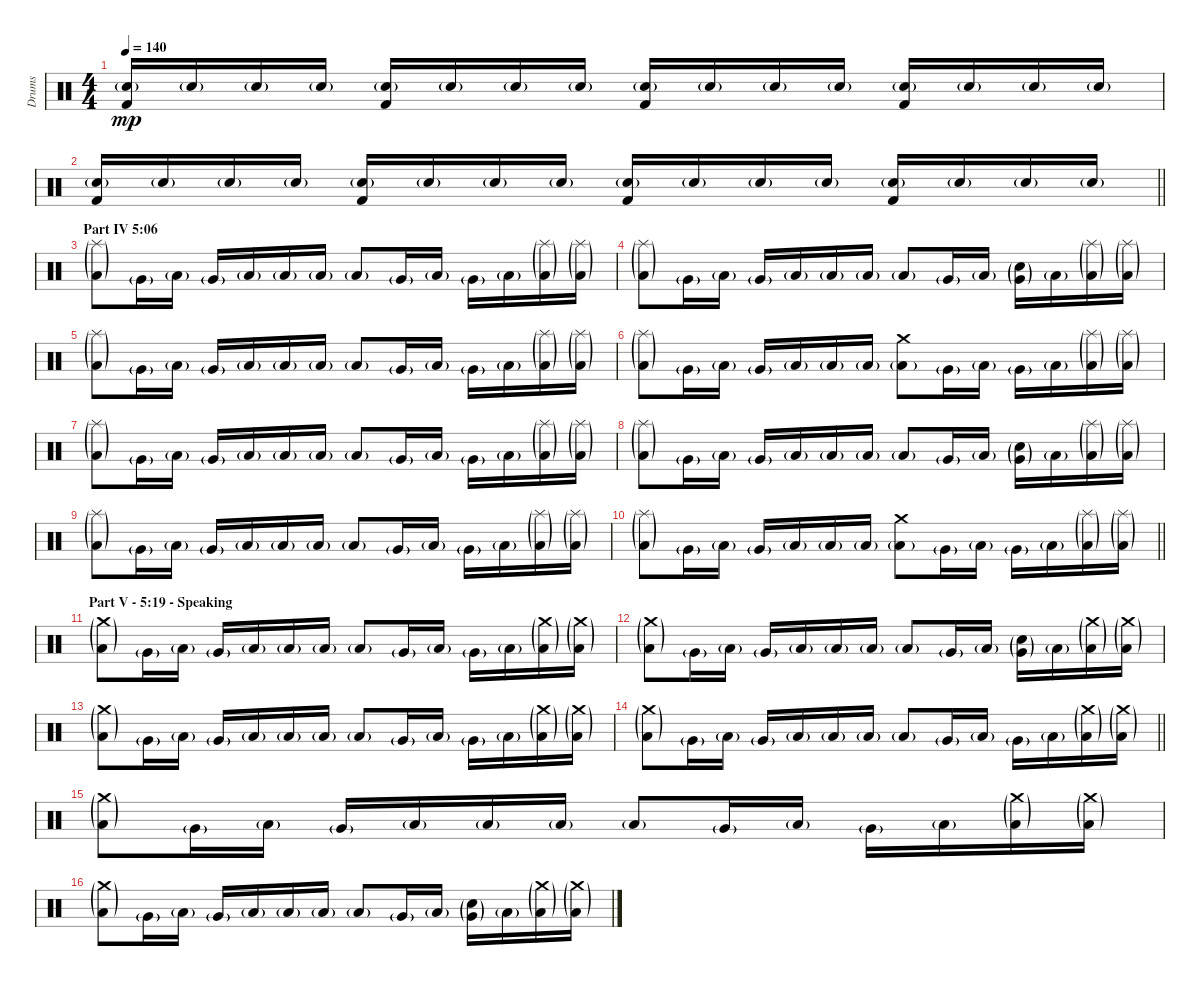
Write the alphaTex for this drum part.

\track ("Drums" "Drums") {instrument percussion}
\staff {score}
\articulation defaults
\ts (4 4)
\tempo 140
\clef neutral
\ks c
("Kick (hit) 2" "Snare (hit) 2"{g}).16{dy mp} "Snare (hit) 2"{g}.16 "Snare (hit) 2"{g}.16 "Snare (hit) 2"{g}.16 ("Kick (hit) 2" "Snare (hit) 2"{g}).16 "Snare (hit) 2"{g}.16 "Snare (hit) 2"{g}.16 "Snare (hit) 2"{g}.16 ("Kick (hit) 2" "Snare (hit) 2"{g}).16 "Snare (hit) 2"{g}.16 "Snare (hit) 2"{g}.16 "Snare (hit) 2"{g}.16 ("Kick (hit) 2" "Snare (hit) 2"{g}).16 "Snare (hit) 2"{g}.16 "Snare (hit) 2"{g}.16 "Snare (hit) 2"{g}.16 |
\barLineRight lightlight
("Kick (hit) 2" "Snare (hit) 2"{g}).16 "Snare (hit) 2"{g}.16 "Snare (hit) 2"{g}.16 "Snare (hit) 2"{g}.16 ("Kick (hit) 2" "Snare (hit) 2"{g}).16 "Snare (hit) 2"{g}.16 "Snare (hit) 2"{g}.16 "Snare (hit) 2"{g}.16 ("Kick (hit) 2" "Snare (hit) 2"{g}).16 "Snare (hit) 2"{g}.16 "Snare (hit) 2"{g}.16 "Snare (hit) 2"{g}.16 ("Kick (hit) 2" "Snare (hit) 2"{g}).16 "Snare (hit) 2"{g}.16 "Snare (hit) 2"{g}.16 "Snare (hit) 2"{g}.16 |
\section ("" "Part IV 5:06")
("Low Tom (hit)"{g} "Splash (hit)"{g}).8 "Very Low Tom (hit)"{g}.16 "Low Tom (hit)"{g}.16 "Very Low Tom (hit)"{g}.16 "Low Floor Tom (hit)"{g}.16 "Low Floor Tom (hit)"{g}.16 "Low Floor Tom (hit)"{g}.16 "Low Tom (hit)"{g}.8 "Very Low Tom (hit)"{g}.16 "Low Tom (hit)"{g}.16 "Very Low Tom (hit)"{g}.16 "Low Floor Tom (hit)"{g}.16 ("Low Floor Tom (hit)"{g} "Splash (hit)"{g}).16 ("Low Floor Tom (hit)"{g} "Splash (hit)"{g}).16 |
("Low Tom (hit)"{g} "Splash (hit)"{g}).8 "Very Low Tom (hit)"{g}.16 "Low Tom (hit)"{g}.16 "Very Low Tom (hit)"{g}.16 "Low Floor Tom (hit)"{g}.16 "Low Floor Tom (hit)"{g}.16 "Low Floor Tom (hit)"{g}.16 "Low Tom (hit)"{g}.8 "Very Low Tom (hit)"{g}.16 "Low Tom (hit)"{g}.16 ("Snare (hit) 2"{g} "Very Low Tom (hit)"{g}).16 "Low Floor Tom (hit)"{g}.16 ("Low Floor Tom (hit)"{g} "Splash (hit)"{g}).16 ("Low Floor Tom (hit)"{g} "Splash (hit)"{g}).16 |
("Low Tom (hit)"{g} "Splash (hit)"{g}).8 "Very Low Tom (hit)"{g}.16 "Low Tom (hit)"{g}.16 "Very Low Tom (hit)"{g}.16 "Low Floor Tom (hit)"{g}.16 "Low Floor Tom (hit)"{g}.16 "Low Floor Tom (hit)"{g}.16 "Low Tom (hit)"{g}.8 "Very Low Tom (hit)"{g}.16 "Low Tom (hit)"{g}.16 "Very Low Tom (hit)"{g}.16 "Low Floor Tom (hit)"{g}.16 ("Low Floor Tom (hit)"{g} "Splash (hit)"{g}).16 ("Low Floor Tom (hit)"{g} "Splash (hit)"{g}).16 |
("Low Tom (hit)"{g} "Splash (hit)"{g}).8 "Very Low Tom (hit)"{g}.16 "Low Tom (hit)"{g}.16 "Very Low Tom (hit)"{g}.16 "Low Floor Tom (hit)"{g}.16 "Low Floor Tom (hit)"{g}.16 "Low Floor Tom (hit)"{g}.16 ("Low Tom (hit)"{g} "Crash medium (hit)").8 "Very Low Tom (hit)"{g}.16 "Low Tom (hit)"{g}.16 "Very Low Tom (hit)"{g}.16 "Low Floor Tom (hit)"{g}.16 ("Low Floor Tom (hit)"{g} "Splash (hit)"{g}).16 ("Low Floor Tom (hit)"{g} "Splash (hit)"{g}).16 |
("Low Tom (hit)"{g} "Splash (hit)"{g}).8 "Very Low Tom (hit)"{g}.16 "Low Tom (hit)"{g}.16 "Very Low Tom (hit)"{g}.16 "Low Floor Tom (hit)"{g}.16 "Low Floor Tom (hit)"{g}.16 "Low Floor Tom (hit)"{g}.16 "Low Tom (hit)"{g}.8 "Very Low Tom (hit)"{g}.16 "Low Tom (hit)"{g}.16 "Very Low Tom (hit)"{g}.16 "Low Floor Tom (hit)"{g}.16 ("Low Floor Tom (hit)"{g} "Splash (hit)"{g}).16 ("Low Floor Tom (hit)"{g} "Splash (hit)"{g}).16 |
("Low Tom (hit)"{g} "Splash (hit)"{g}).8 "Very Low Tom (hit)"{g}.16 "Low Tom (hit)"{g}.16 "Very Low Tom (hit)"{g}.16 "Low Floor Tom (hit)"{g}.16 "Low Floor Tom (hit)"{g}.16 "Low Floor Tom (hit)"{g}.16 "Low Tom (hit)"{g}.8 "Very Low Tom (hit)"{g}.16 "Low Tom (hit)"{g}.16 ("Snare (hit) 2"{g} "Very Low Tom (hit)"{g}).16 "Low Floor Tom (hit)"{g}.16 ("Low Floor Tom (hit)"{g} "Splash (hit)"{g}).16 ("Low Floor Tom (hit)"{g} "Splash (hit)"{g}).16 |
("Low Tom (hit)"{g} "Splash (hit)"{g}).8 "Very Low Tom (hit)"{g}.16 "Low Tom (hit)"{g}.16 "Very Low Tom (hit)"{g}.16 "Low Floor Tom (hit)"{g}.16 "Low Floor Tom (hit)"{g}.16 "Low Floor Tom (hit)"{g}.16 "Low Tom (hit)"{g}.8 "Very Low Tom (hit)"{g}.16 "Low Tom (hit)"{g}.16 "Very Low Tom (hit)"{g}.16 "Low Floor Tom (hit)"{g}.16 ("Low Floor Tom (hit)"{g} "Splash (hit)"{g}).16 ("Low Floor Tom (hit)"{g} "Splash (hit)"{g}).16 |
\barLineRight lightlight
("Low Tom (hit)"{g} "Splash (hit)"{g}).8 "Very Low Tom (hit)"{g}.16 "Low Tom (hit)"{g}.16 "Very Low Tom (hit)"{g}.16 "Low Floor Tom (hit)"{g}.16 "Low Floor Tom (hit)"{g}.16 "Low Floor Tom (hit)"{g}.16 ("Low Tom (hit)"{g} "Crash medium (hit)").8 "Very Low Tom (hit)"{g}.16 "Low Tom (hit)"{g}.16 "Very Low Tom (hit)"{g}.16 "Low Floor Tom (hit)"{g}.16 ("Low Floor Tom (hit)"{g} "Splash (hit)"{g}).16 ("Low Floor Tom (hit)"{g} "Splash (hit)"{g}).16 |
\section ("" "Part V - 5:19 - Speaking")
("Low Tom (hit)"{g} "Crash medium (hit)"{g}).8 "Very Low Tom (hit)"{g}.16 "Low Tom (hit)"{g}.16 "Very Low Tom (hit)"{g}.16 "Low Floor Tom (hit)"{g}.16 "Low Floor Tom (hit)"{g}.16 "Low Floor Tom (hit)"{g}.16 "Low Tom (hit)"{g}.8 "Very Low Tom (hit)"{g}.16 "Low Tom (hit)"{g}.16 "Very Low Tom (hit)"{g}.16 "Low Floor Tom (hit)"{g}.16 ("Low Floor Tom (hit)"{g} "Crash medium (hit)"{g}).16 ("Low Floor Tom (hit)"{g} "Crash medium (hit)"{g}).16 |
("Low Tom (hit)"{g} "Crash medium (hit)"{g}).8 "Very Low Tom (hit)"{g}.16 "Low Tom (hit)"{g}.16 "Very Low Tom (hit)"{g}.16 "Low Floor Tom (hit)"{g}.16 "Low Floor Tom (hit)"{g}.16 "Low Floor Tom (hit)"{g}.16 "Low Tom (hit)"{g}.8 "Very Low Tom (hit)"{g}.16 "Low Tom (hit)"{g}.16 ("Snare (hit) 2"{g} "Very Low Tom (hit)"{g}).16 "Low Floor Tom (hit)"{g}.16 ("Low Floor Tom (hit)"{g} "Crash medium (hit)"{g}).16 ("Low Floor Tom (hit)"{g} "Crash medium (hit)"{g}).16 |
("Low Tom (hit)"{g} "Crash medium (hit)"{g}).8 "Very Low Tom (hit)"{g}.16 "Low Tom (hit)"{g}.16 "Very Low Tom (hit)"{g}.16 "Low Floor Tom (hit)"{g}.16 "Low Floor Tom (hit)"{g}.16 "Low Floor Tom (hit)"{g}.16 "Low Tom (hit)"{g}.8 "Very Low Tom (hit)"{g}.16 "Low Tom (hit)"{g}.16 "Very Low Tom (hit)"{g}.16 "Low Floor Tom (hit)"{g}.16 ("Low Floor Tom (hit)"{g} "Crash medium (hit)"{g}).16 ("Low Floor Tom (hit)"{g} "Crash medium (hit)"{g}).16 |
\barLineRight lightlight
("Low Tom (hit)"{g} "Crash medium (hit)"{g}).8 "Very Low Tom (hit)"{g}.16 "Low Tom (hit)"{g}.16 "Very Low Tom (hit)"{g}.16 "Low Floor Tom (hit)"{g}.16 "Low Floor Tom (hit)"{g}.16 "Low Floor Tom (hit)"{g}.16 "Low Tom (hit)"{g}.8 "Very Low Tom (hit)"{g}.16 "Low Tom (hit)"{g}.16 "Very Low Tom (hit)"{g}.16 "Low Floor Tom (hit)"{g}.16 ("Low Floor Tom (hit)"{g} "Crash medium (hit)"{g}).16 ("Low Floor Tom (hit)"{g} "Crash medium (hit)"{g}).16 |
("Low Tom (hit)"{g} "Crash medium (hit)"{g}).8 "Very Low Tom (hit)"{g}.16 "Low Tom (hit)"{g}.16 "Very Low Tom (hit)"{g}.16 "Low Floor Tom (hit)"{g}.16 "Low Floor Tom (hit)"{g}.16 "Low Floor Tom (hit)"{g}.16 "Low Tom (hit)"{g}.8 "Very Low Tom (hit)"{g}.16 "Low Tom (hit)"{g}.16 "Very Low Tom (hit)"{g}.16 "Low Floor Tom (hit)"{g}.16 ("Low Floor Tom (hit)"{g} "Crash medium (hit)"{g}).16 ("Low Floor Tom (hit)"{g} "Crash medium (hit)"{g}).16 |
("Low Tom (hit)"{g} "Crash medium (hit)"{g}).8 "Very Low Tom (hit)"{g}.16 "Low Tom (hit)"{g}.16 "Very Low Tom (hit)"{g}.16 "Low Floor Tom (hit)"{g}.16 "Low Floor Tom (hit)"{g}.16 "Low Floor Tom (hit)"{g}.16 "Low Tom (hit)"{g}.8 "Very Low Tom (hit)"{g}.16 "Low Tom (hit)"{g}.16 ("Snare (hit) 2"{g} "Very Low Tom (hit)"{g}).16 "Low Floor Tom (hit)"{g}.16 ("Low Floor Tom (hit)"{g} "Crash medium (hit)"{g}).16 ("Low Floor Tom (hit)"{g} "Crash medium (hit)"{g}).16
